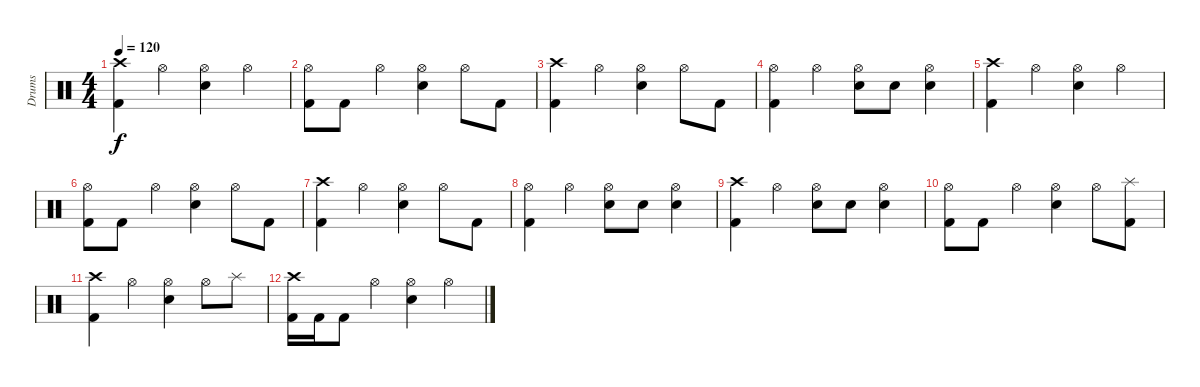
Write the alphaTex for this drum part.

\track ("Drums" "Drums") {instrument percussion}
\staff {score}
\articulation defaults
\ts (4 4)
\tempo 120
\clef neutral
\ks c
("Crash high (hit)" "Kick (hit) 2").4{dy f} "Hi-Hat (open)".4 ("Hi-Hat (open)" "Snare (hit) 2").4 "Hi-Hat (open)".4 |
("Hi-Hat (open)" "Kick (hit) 2").8 "Kick (hit) 2".8 "Hi-Hat (open)".4 ("Hi-Hat (open)" "Snare (hit) 2").4 "Hi-Hat (open)".8 "Kick (hit) 2".8 |
("Crash high (hit)" "Kick (hit) 2").4 "Hi-Hat (open)".4 ("Hi-Hat (open)" "Snare (hit) 2").4 "Hi-Hat (open)".8 "Kick (hit) 2".8 |
("Hi-Hat (open)" "Kick (hit) 2").4 "Hi-Hat (open)".4 ("Hi-Hat (open)" "Snare (hit) 2").8 "Snare (hit) 2".8 ("Hi-Hat (open)" "Snare (hit) 2").4 |
("Crash high (hit)" "Kick (hit) 2").4 "Hi-Hat (open)".4 ("Hi-Hat (open)" "Snare (hit) 2").4 "Hi-Hat (open)".4 |
("Hi-Hat (open)" "Kick (hit) 2").8 "Kick (hit) 2".8 "Hi-Hat (open)".4 ("Hi-Hat (open)" "Snare (hit) 2").4 "Hi-Hat (open)".8 "Kick (hit) 2".8 |
("Crash high (hit)" "Kick (hit) 2").4 "Hi-Hat (open)".4 ("Hi-Hat (open)" "Snare (hit) 2").4 "Hi-Hat (open)".8 "Kick (hit) 2".8 |
("Hi-Hat (open)" "Kick (hit) 2").4 "Hi-Hat (open)".4 ("Hi-Hat (open)" "Snare (hit) 2").8 "Snare (hit) 2".8 ("Hi-Hat (open)" "Snare (hit) 2").4 |
("Crash high (hit)" "Kick (hit) 2").4{volume 7} "Hi-Hat (open)".4 ("Hi-Hat (open)" "Snare (hit) 2").8 "Snare (hit) 2".8 ("Hi-Hat (open)" "Snare (hit) 2").4 |
("Hi-Hat (open)" "Kick (hit) 2").8 "Kick (hit) 2".8 "Hi-Hat (open)".4 ("Hi-Hat (open)" "Snare (hit) 2").4 "Hi-Hat (open)".8 ("Splash (hit)" "Kick (hit) 2").8 |
("Crash high (hit)" "Kick (hit) 2").4{volume 0} "Hi-Hat (open)".4 ("Hi-Hat (open)" "Snare (hit) 2").4 "Hi-Hat (open)".8 "Splash (hit)".8 |
("Crash high (hit)" "Kick (hit) 2").16 "Kick (hit) 2".16 "Kick (hit) 2".8 "Hi-Hat (open)".4 ("Hi-Hat (open)" "Snare (hit) 2").4 "Hi-Hat (open)".4
